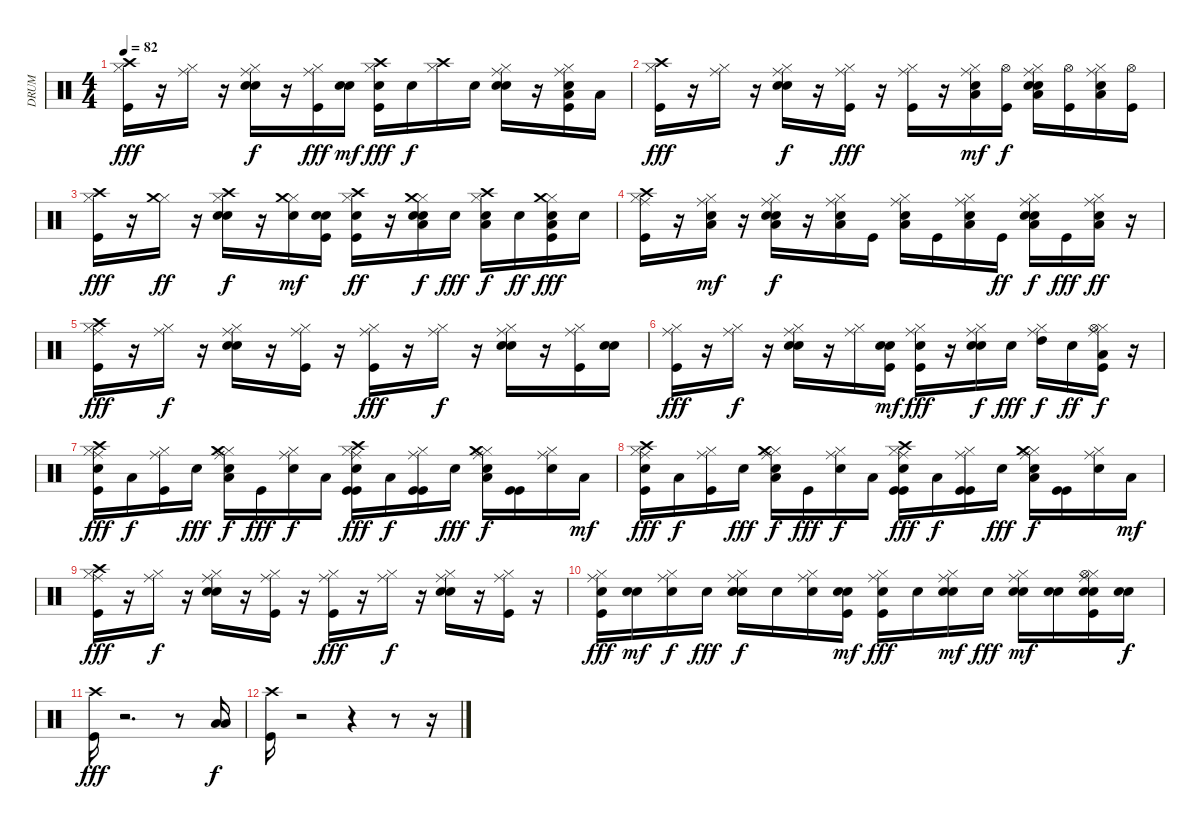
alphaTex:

\track ("DRUM" "DRUM") {instrument percussion}
\staff {score}
\articulation defaults
\ts (4 4)
\tempo 82
\clef neutral
\ks c
("Kick (hit)" "Hi-Hat (closed)" "Crash high (hit)").16{dy fff} r.16 ("Hi-Hat (closed)" "Ride (middle)").16 r.16 ("Snare (hit) 2" "Hi-Hat (closed)" "Ride (middle)" "Hand Clap (hit)").16{dy f} r.16 ("Kick (hit)" "Hi-Hat (closed)" "Ride (middle)").16{dy fff} ("Snare (hit) 2" "Snare (hit) 2").16{dy mf} ("Kick (hit)" "Snare (hit) 2" "Hi-Hat (closed)" "Crash high (hit)").16{dy fff} "Snare (hit) 2".16{dy f} ("Hi-Hat (closed)" "Crash high (hit)").16 "Snare (hit) 2".16 ("Snare (hit) 2" "Hi-Hat (closed)" "Ride (middle)" "Hand Clap (hit)").16 r.16 ("Snare (hit) 2" "Kick (hit)" "Hi-Hat (closed)" "Ride (middle)" "Low Tom (hit)").16 "Low Floor Tom (hit)".16 |
("Kick (hit)" "Hi-Hat (closed)" "Crash high (hit)").16{dy fff} r.16 ("Hi-Hat (closed)" "Ride (middle)").16 r.16 ("Snare (hit) 2" "Hi-Hat (closed)" "Ride (middle)" "Hand Clap (hit)").16{dy f} r.16 ("Kick (hit)" "Hi-Hat (closed)" "Ride (middle)").16{dy fff} r.16 ("Kick (hit)" "Hi-Hat (closed)" "Ride (middle)").16 r.16 ("Snare (hit) 2" "Hi-Hat (closed)" "Ride (middle)" "Low Floor Tom (hit)").16{dy mf} ("Kick (hit)" "Hi-Hat (open)").16{dy f} ("Snare (hit) 2" "Hi-Hat (closed)" "Ride (middle)" "Low Floor Tom (hit)" "Hand Clap (hit)").16 ("Kick (hit)" "Hi-Hat (open)").16 ("Snare (hit) 2" "Hi-Hat (closed)" "Ride (middle)" "Low Floor Tom (hit)").16 ("Kick (hit)" "Hi-Hat (open)").16 |
("Kick (hit)" "Hi-Hat (closed)" "Crash high (hit)").16{dy fff} r.16 ("Hi-Hat (closed)" "Crash medium (hit)").16{dy ff} r.16 ("Snare (hit) 2" "Hi-Hat (closed)" "Crash high (hit)" "Hand Clap (hit)").16{dy f} r.16 ("Hi-Hat (closed)" "Crash medium (hit)" "Snare (hit) 2").16{dy mf} ("Kick (hit)" "Snare (hit) 2" "Snare (hit) 2").16 ("Kick (hit)" "Snare (hit) 2" "Hi-Hat (closed)" "Crash high (hit)").16{dy ff} r.16 ("Snare (hit) 2" "Hi-Hat (closed)" "Crash medium (hit)" "Low Floor Tom (hit)" "Snare (hit) 2").16{dy f} "Snare (hit) 2".16{dy fff} ("Snare (hit) 2" "Hi-Hat (closed)" "Crash high (hit)" "Low Floor Tom (hit)").16{dy f} "Snare (hit) 2".16{dy ff} ("Kick (hit)" "Snare (hit) 2" "Hi-Hat (closed)" "Crash medium (hit)" "Low Floor Tom (hit)").16{dy fff} "Snare (hit) 2".16 |
("Kick (hit)" "Hi-Hat (closed)" "Ride (middle)" "Crash high (hit)").16 r.16 ("Snare (hit) 2" "Hi-Hat (closed)" "Ride (middle)" "Low Floor Tom (hit)").16{dy mf} r.16 ("Snare (hit) 2" "Hi-Hat (closed)" "Ride (middle)" "Low Floor Tom (hit)" "Hand Clap (hit)").16{dy f} r.16 ("Snare (hit) 2" "Hi-Hat (closed)" "Ride (middle)" "Low Floor Tom (hit)").16 "Kick (hit)".16 ("Snare (hit) 2" "Hi-Hat (closed)" "Ride (middle)" "Low Floor Tom (hit)").16 "Kick (hit)".16 ("Snare (hit) 2" "Hi-Hat (closed)" "Ride (middle)" "Low Floor Tom (hit)").16 "Kick (hit)".16{dy ff} ("Snare (hit) 2" "Hi-Hat (closed)" "Ride (middle)" "Low Floor Tom (hit)" "Hand Clap (hit)").16{dy f} "Kick (hit)".16{dy fff} ("Snare (hit) 2" "Hi-Hat (closed)" "Ride (middle)" "Low Floor Tom (hit)").16{dy ff} r.16 |
("Kick (hit)" "Hi-Hat (closed)" "Ride (middle)" "Crash high (hit)").16{dy fff} r.16 ("Hi-Hat (closed)" "Ride (middle)").16{dy f} r.16 ("Snare (hit) 2" "Hi-Hat (closed)" "Ride (middle)" "Hand Clap (hit)").16 r.16 ("Kick (hit)" "Hi-Hat (closed)" "Ride (middle)").16 r.16 ("Kick (hit)" "Hi-Hat (closed)" "Ride (middle)").16{dy fff} r.16 ("Hi-Hat (closed)" "Ride (middle)").16{dy f} r.16 ("Snare (hit) 2" "Hi-Hat (closed)" "Ride (middle)" "Hand Clap (hit)").16 r.16 ("Kick (hit)" "Hi-Hat (closed)" "Ride (middle)").16 ("Snare (hit) 2" "Snare (hit) 2").16 |
("Kick (hit)" "Hi-Hat (closed)" "Ride (middle)").16{dy fff} r.16 ("Hi-Hat (closed)" "Ride (middle)").16{dy f} r.16 ("Snare (hit) 2" "Hi-Hat (closed)" "Ride (middle)" "Hand Clap (hit)").16 r.16 ("Hi-Hat (closed)" "Ride (middle)").16 ("Kick (hit)" "Snare (hit) 2" "Snare (hit) 2").16{dy mf} ("Kick (hit)" "Snare (hit) 2" "Hi-Hat (closed)" "Ride (middle)").16{dy fff} r.16 ("Snare (hit) 2" "Hi-Hat (closed)" "Ride (middle)" "Snare (hit) 2").16{dy f} "Snare (hit) 2".16{dy fff} ("Hi-Hat (closed)" "Ride (middle)" "High Tom (hit)").16{dy f} "Snare (hit) 2".16{dy ff} ("Kick (hit)" "Hi-Hat (closed)" "Hi-Hat (open)" "Ride (middle)" "Low Floor Tom (hit)").16{dy f} r.16 |
("Kick (hit)" "Snare (hit) 2" "Hi-Hat (closed)" "Ride (middle)" "Crash high (hit)").16{dy fff} "Low Floor Tom (hit)".16{dy f} ("Kick (hit)" "Hi-Hat (closed)" "Ride (middle)").16 "Snare (hit) 2".16{dy fff} ("Hi-Hat (closed)" "Ride (middle)" "Crash medium (hit)" "Low Floor Tom (hit)" "Hand Clap (hit)").16{dy f} "Kick (hit)".16{dy fff} ("Snare (hit) 2" "Hi-Hat (closed)" "Ride (middle)").16{dy f} "Low Floor Tom (hit)".16 ("Kick (hit)" "Snare (hit) 2" "Hi-Hat (closed)" "Ride (middle)" "Crash high (hit)" "Kick (hit)").16{dy fff} "Low Floor Tom (hit)".16{dy f} ("Kick (hit)" "Hi-Hat (closed)" "Ride (middle)" "Kick (hit)").16 "Snare (hit) 2".16{dy fff} ("Hi-Hat (closed)" "Ride (middle)" "Crash medium (hit)" "Low Floor Tom (hit)" "Hand Clap (hit)").16{dy f} ("Kick (hit)" "Kick (hit)").16 ("Snare (hit) 2" "Hi-Hat (closed)" "Ride (middle)").16 "Low Floor Tom (hit)".16{dy mf} |
("Kick (hit)" "Snare (hit) 2" "Hi-Hat (closed)" "Ride (middle)" "Crash high (hit)").16{dy fff} "Low Floor Tom (hit)".16{dy f} ("Kick (hit)" "Hi-Hat (closed)" "Ride (middle)").16 "Snare (hit) 2".16{dy fff} ("Hi-Hat (closed)" "Ride (middle)" "Crash medium (hit)" "Low Floor Tom (hit)" "Hand Clap (hit)").16{dy f} "Kick (hit)".16{dy fff} ("Snare (hit) 2" "Hi-Hat (closed)" "Ride (middle)").16{dy f} "Low Floor Tom (hit)".16 ("Kick (hit)" "Snare (hit) 2" "Hi-Hat (closed)" "Ride (middle)" "Crash high (hit)" "Kick (hit)").16{dy fff} "Low Floor Tom (hit)".16{dy f} ("Kick (hit)" "Hi-Hat (closed)" "Ride (middle)" "Kick (hit)").16 "Snare (hit) 2".16{dy fff} ("Hi-Hat (closed)" "Ride (middle)" "Crash medium (hit)" "Low Floor Tom (hit)" "Hand Clap (hit)").16{dy f} ("Kick (hit)" "Kick (hit)").16 ("Snare (hit) 2" "Hi-Hat (closed)" "Ride (middle)").16 "Low Floor Tom (hit)".16{dy mf} |
("Kick (hit)" "Hi-Hat (closed)" "Ride (middle)" "Crash high (hit)").16{dy fff} r.16 ("Hi-Hat (closed)" "Ride (middle)").16{dy f} r.16 ("Snare (hit) 2" "Hi-Hat (closed)" "Ride (middle)" "Hand Clap (hit)").16 r.16 ("Kick (hit)" "Hi-Hat (closed)" "Ride (middle)").16 r.16 ("Kick (hit)" "Hi-Hat (closed)" "Ride (middle)").16{dy fff} r.16 ("Hi-Hat (closed)" "Ride (middle)").16{dy f} r.16 ("Snare (hit) 2" "Hi-Hat (closed)" "Ride (middle)" "Hand Clap (hit)").16 r.16 ("Kick (hit)" "Hi-Hat (closed)" "Ride (middle)").16 r.16 |
("Kick (hit)" "Snare (hit) 2" "Hi-Hat (closed)" "Ride (middle)").16{dy fff} ("Snare (hit) 2" "Snare (hit) 2").16{dy mf} ("Snare (hit) 2" "Hi-Hat (closed)" "Ride (middle)").16{dy f} "Snare (hit) 2".16{dy fff} ("Snare (hit) 2" "Hi-Hat (closed)" "Ride (middle)" "Hand Clap (hit)" "Snare (hit) 2").16{dy f} "Snare (hit) 2".16 ("Snare (hit) 2" "Hi-Hat (closed)" "Ride (middle)").16 ("Kick (hit)" "Snare (hit) 2" "Snare (hit) 2").16{dy mf} ("Kick (hit)" "Snare (hit) 2" "Hi-Hat (closed)" "Ride (middle)").16{dy fff} "Snare (hit) 2".16 ("Snare (hit) 2" "Hi-Hat (closed)" "Ride (middle)" "Snare (hit) 2").16{dy mf} "Snare (hit) 2".16{dy fff} ("Snare (hit) 2" "Hi-Hat (closed)" "Ride (middle)" "Snare (hit) 2").16{dy mf} ("Snare (hit) 2" "Snare (hit) 2").16 ("Kick (hit)" "Snare (hit) 2" "Hi-Hat (closed)" "Hi-Hat (open)" "Ride (middle)" "Snare (hit) 2").16 ("Snare (hit) 2" "Snare (hit) 2").16{dy f} |
("Kick (hit)" "Crash high (hit)").16{dy fff} r.2{d} r.8 ("Low Tom (hit)" "Low Floor Tom (hit)").16{dy f} |
("Kick (hit)" "Crash high (hit)").16 r.2 r.4 r.8 r.16
